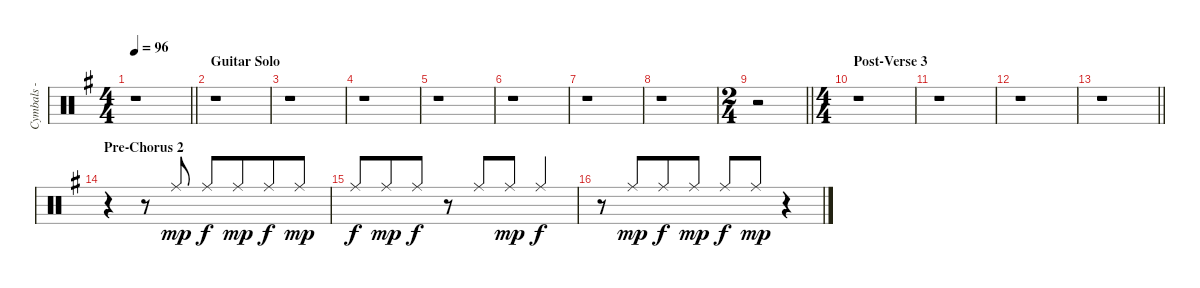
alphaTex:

\track ("Cymbals - ride" "Cymbals - ") {instrument percussion}
\staff {score}
\articulation defaults
\ts (4 4)
\tempo 96
\clef neutral
\barLineRight lightlight
\ks g
r.1{dy f} |
\section ("" "Guitar Solo")
r.1 |
r.1 |
r.1 |
r.1 |
r.1 |
r.1 |
r.1 |
\ts (2 4)
\barLineRight lightlight
r.2 |
\ts (4 4)
\section ("" "Post-Verse 3")
r.1 |
r.1 |
r.1 |
\barLineRight lightlight
r.1 |
\section ("" "Pre-Chorus 2")
r.4{beam merge} r.8 "Ride (middle)".8{dy mp beam Up} "Ride (middle)".8{dy f beam Up} "Ride (middle)".8{dy mp beam Up beam merge} "Ride (middle)".8{dy f beam Up} "Ride (middle)".8{dy mp beam Up} |
"Ride (middle)".8{dy f beam Up} "Ride (middle)".8{dy mp beam Up beam merge} "Ride (middle)".8{dy f beam Up} r.8 "Ride (middle)".8{beam Up} "Ride (middle)".8{dy mp beam Up} "Ride (middle)".4{dy f beam Up} |
r.8 "Ride (middle)".8{dy mp beam Up beam merge} "Ride (middle)".8{dy f beam Up} "Ride (middle)".8{dy mp beam Up} "Ride (middle)".8{dy f beam Up} "Ride (middle)".8{dy mp beam Up beam merge} r.4
